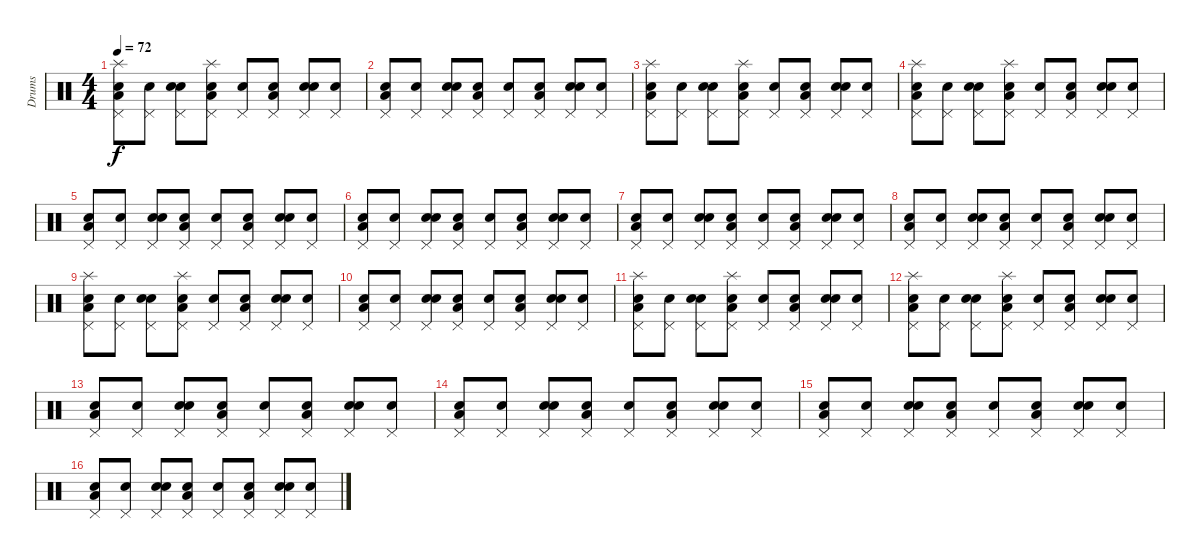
\track ("Drums" "Drums") {instrument percussion}
\staff {score}
\articulation defaults
\ts (4 4)
\tempo 72
\clef neutral
\ks c
("Snare (hit)" "Low Floor Tom (hit)" "Pedal Hi-Hat (hit)" "Splash (hit)").8{dy f} ("Snare (hit)" "Pedal Hi-Hat (hit)").8 ("Snare (hit)" "Electric Snare (hit)" "Pedal Hi-Hat (hit)").8 ("Snare (hit)" "Low Floor Tom (hit)" "Pedal Hi-Hat (hit)" "Splash (hit)").8 ("Snare (hit)" "Pedal Hi-Hat (hit)").8 ("Snare (hit)" "Low Floor Tom (hit)" "Pedal Hi-Hat (hit)").8 ("Snare (hit)" "Electric Snare (hit)" "Pedal Hi-Hat (hit)").8 ("Snare (hit)" "Pedal Hi-Hat (hit)").8 |
("Snare (hit)" "Low Floor Tom (hit)" "Pedal Hi-Hat (hit)").8 ("Snare (hit)" "Pedal Hi-Hat (hit)").8 ("Snare (hit)" "Electric Snare (hit)" "Pedal Hi-Hat (hit)").8 ("Snare (hit)" "Low Floor Tom (hit)" "Pedal Hi-Hat (hit)").8 ("Snare (hit)" "Pedal Hi-Hat (hit)").8 ("Snare (hit)" "Low Floor Tom (hit)" "Pedal Hi-Hat (hit)").8 ("Snare (hit)" "Electric Snare (hit)" "Pedal Hi-Hat (hit)").8 ("Snare (hit)" "Pedal Hi-Hat (hit)").8 |
("Snare (hit)" "Low Floor Tom (hit)" "Pedal Hi-Hat (hit)" "Splash (hit)").8 ("Snare (hit)" "Pedal Hi-Hat (hit)").8 ("Snare (hit)" "Electric Snare (hit)" "Pedal Hi-Hat (hit)").8 ("Snare (hit)" "Low Floor Tom (hit)" "Pedal Hi-Hat (hit)" "Splash (hit)").8 ("Snare (hit)" "Pedal Hi-Hat (hit)").8 ("Snare (hit)" "Low Floor Tom (hit)" "Pedal Hi-Hat (hit)").8 ("Snare (hit)" "Electric Snare (hit)" "Pedal Hi-Hat (hit)").8 ("Snare (hit)" "Pedal Hi-Hat (hit)").8 |
("Snare (hit)" "Low Floor Tom (hit)" "Pedal Hi-Hat (hit)" "Splash (hit)").8 ("Snare (hit)" "Pedal Hi-Hat (hit)").8 ("Snare (hit)" "Electric Snare (hit)" "Pedal Hi-Hat (hit)").8 ("Snare (hit)" "Low Floor Tom (hit)" "Pedal Hi-Hat (hit)" "Splash (hit)").8 ("Snare (hit)" "Pedal Hi-Hat (hit)").8 ("Snare (hit)" "Low Floor Tom (hit)" "Pedal Hi-Hat (hit)").8 ("Snare (hit)" "Electric Snare (hit)" "Pedal Hi-Hat (hit)").8 ("Snare (hit)" "Pedal Hi-Hat (hit)").8 |
("Snare (hit)" "Low Floor Tom (hit)" "Pedal Hi-Hat (hit)").8 ("Snare (hit)" "Pedal Hi-Hat (hit)").8 ("Snare (hit)" "Electric Snare (hit)" "Pedal Hi-Hat (hit)").8 ("Snare (hit)" "Low Floor Tom (hit)" "Pedal Hi-Hat (hit)").8 ("Snare (hit)" "Pedal Hi-Hat (hit)").8 ("Snare (hit)" "Low Floor Tom (hit)" "Pedal Hi-Hat (hit)").8 ("Snare (hit)" "Electric Snare (hit)" "Pedal Hi-Hat (hit)").8 ("Snare (hit)" "Pedal Hi-Hat (hit)").8 |
("Snare (hit)" "Low Floor Tom (hit)" "Pedal Hi-Hat (hit)").8 ("Snare (hit)" "Pedal Hi-Hat (hit)").8 ("Snare (hit)" "Electric Snare (hit)" "Pedal Hi-Hat (hit)").8 ("Snare (hit)" "Low Floor Tom (hit)" "Pedal Hi-Hat (hit)").8 ("Snare (hit)" "Pedal Hi-Hat (hit)").8 ("Snare (hit)" "Low Floor Tom (hit)" "Pedal Hi-Hat (hit)").8 ("Snare (hit)" "Electric Snare (hit)" "Pedal Hi-Hat (hit)").8 ("Snare (hit)" "Pedal Hi-Hat (hit)").8 |
("Snare (hit)" "Low Floor Tom (hit)" "Pedal Hi-Hat (hit)").8 ("Snare (hit)" "Pedal Hi-Hat (hit)").8 ("Snare (hit)" "Electric Snare (hit)" "Pedal Hi-Hat (hit)").8 ("Snare (hit)" "Low Floor Tom (hit)" "Pedal Hi-Hat (hit)").8 ("Snare (hit)" "Pedal Hi-Hat (hit)").8 ("Snare (hit)" "Low Floor Tom (hit)" "Pedal Hi-Hat (hit)").8 ("Snare (hit)" "Electric Snare (hit)" "Pedal Hi-Hat (hit)").8 ("Snare (hit)" "Pedal Hi-Hat (hit)").8 |
("Snare (hit)" "Low Floor Tom (hit)" "Pedal Hi-Hat (hit)").8 ("Snare (hit)" "Pedal Hi-Hat (hit)").8 ("Snare (hit)" "Electric Snare (hit)" "Pedal Hi-Hat (hit)").8 ("Snare (hit)" "Low Floor Tom (hit)" "Pedal Hi-Hat (hit)").8 ("Snare (hit)" "Pedal Hi-Hat (hit)").8 ("Snare (hit)" "Low Floor Tom (hit)" "Pedal Hi-Hat (hit)").8 ("Snare (hit)" "Electric Snare (hit)" "Pedal Hi-Hat (hit)").8 ("Snare (hit)" "Pedal Hi-Hat (hit)").8 |
("Snare (hit)" "Low Floor Tom (hit)" "Pedal Hi-Hat (hit)" "Splash (hit)").8 ("Snare (hit)" "Pedal Hi-Hat (hit)").8 ("Snare (hit)" "Electric Snare (hit)" "Pedal Hi-Hat (hit)").8 ("Snare (hit)" "Low Floor Tom (hit)" "Pedal Hi-Hat (hit)" "Splash (hit)").8 ("Snare (hit)" "Pedal Hi-Hat (hit)").8 ("Snare (hit)" "Low Floor Tom (hit)" "Pedal Hi-Hat (hit)").8 ("Snare (hit)" "Electric Snare (hit)" "Pedal Hi-Hat (hit)").8 ("Snare (hit)" "Pedal Hi-Hat (hit)").8 |
("Snare (hit)" "Low Floor Tom (hit)" "Pedal Hi-Hat (hit)").8 ("Snare (hit)" "Pedal Hi-Hat (hit)").8 ("Snare (hit)" "Electric Snare (hit)" "Pedal Hi-Hat (hit)").8 ("Snare (hit)" "Low Floor Tom (hit)" "Pedal Hi-Hat (hit)").8 ("Snare (hit)" "Pedal Hi-Hat (hit)").8 ("Snare (hit)" "Low Floor Tom (hit)" "Pedal Hi-Hat (hit)").8 ("Snare (hit)" "Electric Snare (hit)" "Pedal Hi-Hat (hit)").8 ("Snare (hit)" "Pedal Hi-Hat (hit)").8 |
("Snare (hit)" "Low Floor Tom (hit)" "Pedal Hi-Hat (hit)" "Splash (hit)").8 ("Snare (hit)" "Pedal Hi-Hat (hit)").8 ("Snare (hit)" "Electric Snare (hit)" "Pedal Hi-Hat (hit)").8 ("Snare (hit)" "Low Floor Tom (hit)" "Pedal Hi-Hat (hit)" "Splash (hit)").8 ("Snare (hit)" "Pedal Hi-Hat (hit)").8 ("Snare (hit)" "Low Floor Tom (hit)" "Pedal Hi-Hat (hit)").8 ("Snare (hit)" "Electric Snare (hit)" "Pedal Hi-Hat (hit)").8 ("Snare (hit)" "Pedal Hi-Hat (hit)").8 |
("Snare (hit)" "Low Floor Tom (hit)" "Pedal Hi-Hat (hit)" "Splash (hit)").8 ("Snare (hit)" "Pedal Hi-Hat (hit)").8 ("Snare (hit)" "Electric Snare (hit)" "Pedal Hi-Hat (hit)").8 ("Snare (hit)" "Low Floor Tom (hit)" "Pedal Hi-Hat (hit)" "Splash (hit)").8 ("Snare (hit)" "Pedal Hi-Hat (hit)").8 ("Snare (hit)" "Low Floor Tom (hit)" "Pedal Hi-Hat (hit)").8 ("Snare (hit)" "Electric Snare (hit)" "Pedal Hi-Hat (hit)").8 ("Snare (hit)" "Pedal Hi-Hat (hit)").8 |
("Snare (hit)" "Low Floor Tom (hit)" "Pedal Hi-Hat (hit)").8 ("Snare (hit)" "Pedal Hi-Hat (hit)").8 ("Snare (hit)" "Electric Snare (hit)" "Pedal Hi-Hat (hit)").8 ("Snare (hit)" "Low Floor Tom (hit)" "Pedal Hi-Hat (hit)").8 ("Snare (hit)" "Pedal Hi-Hat (hit)").8 ("Snare (hit)" "Low Floor Tom (hit)" "Pedal Hi-Hat (hit)").8 ("Snare (hit)" "Electric Snare (hit)" "Pedal Hi-Hat (hit)").8 ("Snare (hit)" "Pedal Hi-Hat (hit)").8 |
("Snare (hit)" "Low Floor Tom (hit)" "Pedal Hi-Hat (hit)").8 ("Snare (hit)" "Pedal Hi-Hat (hit)").8 ("Snare (hit)" "Electric Snare (hit)" "Pedal Hi-Hat (hit)").8 ("Snare (hit)" "Low Floor Tom (hit)" "Pedal Hi-Hat (hit)").8 ("Snare (hit)" "Pedal Hi-Hat (hit)").8 ("Snare (hit)" "Low Floor Tom (hit)" "Pedal Hi-Hat (hit)").8 ("Snare (hit)" "Electric Snare (hit)" "Pedal Hi-Hat (hit)").8 ("Snare (hit)" "Pedal Hi-Hat (hit)").8 |
("Snare (hit)" "Low Floor Tom (hit)" "Pedal Hi-Hat (hit)").8 ("Snare (hit)" "Pedal Hi-Hat (hit)").8 ("Snare (hit)" "Electric Snare (hit)" "Pedal Hi-Hat (hit)").8 ("Snare (hit)" "Low Floor Tom (hit)" "Pedal Hi-Hat (hit)").8 ("Snare (hit)" "Pedal Hi-Hat (hit)").8 ("Snare (hit)" "Low Floor Tom (hit)" "Pedal Hi-Hat (hit)").8 ("Snare (hit)" "Electric Snare (hit)" "Pedal Hi-Hat (hit)").8 ("Snare (hit)" "Pedal Hi-Hat (hit)").8 |
("Snare (hit)" "Low Floor Tom (hit)" "Pedal Hi-Hat (hit)").8 ("Snare (hit)" "Pedal Hi-Hat (hit)").8 ("Snare (hit)" "Electric Snare (hit)" "Pedal Hi-Hat (hit)").8 ("Snare (hit)" "Low Floor Tom (hit)" "Pedal Hi-Hat (hit)").8 ("Snare (hit)" "Pedal Hi-Hat (hit)").8 ("Snare (hit)" "Low Floor Tom (hit)" "Pedal Hi-Hat (hit)").8 ("Snare (hit)" "Electric Snare (hit)" "Pedal Hi-Hat (hit)").8 ("Snare (hit)" "Pedal Hi-Hat (hit)").8
